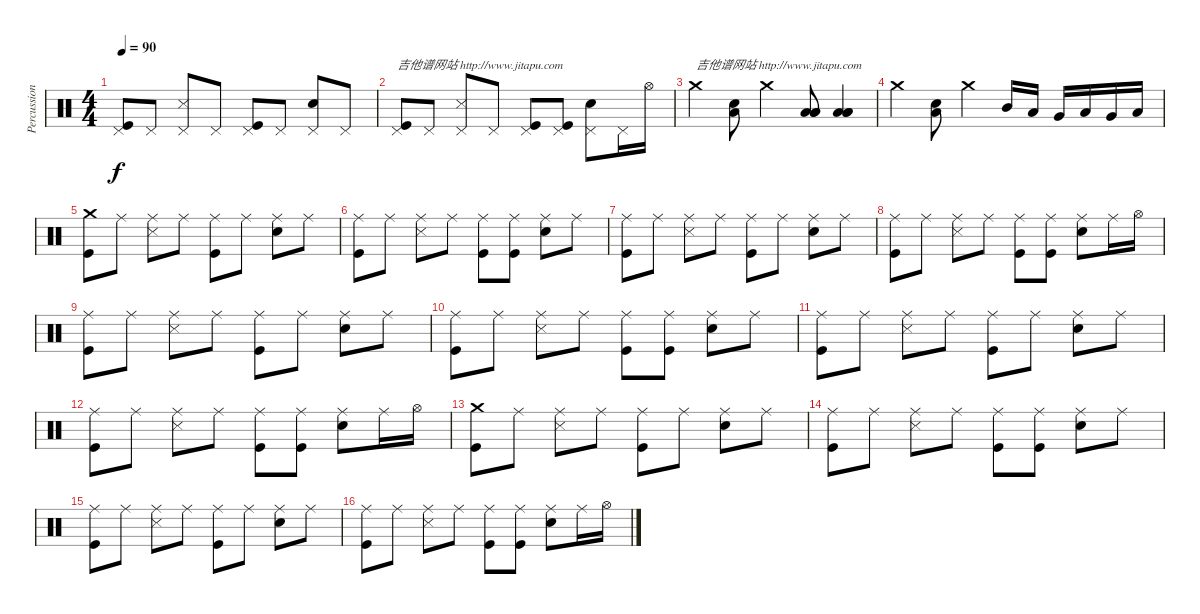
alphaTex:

\track ("Percussion" "Percussion") {instrument percussion}
\staff {score}
\articulation defaults
\ts (4 4)
\tempo 90
\clef neutral
\ks c
("Pedal Hi-Hat (hit)" "Kick (hit)").8{dy f} "Pedal Hi-Hat (hit)".8 ("Pedal Hi-Hat (hit)" "Snare (side stick) 3").8 "Pedal Hi-Hat (hit)".8 ("Pedal Hi-Hat (hit)" "Kick (hit)").8 "Pedal Hi-Hat (hit)".8 ("Pedal Hi-Hat (hit)" "Electric Snare (hit)").8 "Pedal Hi-Hat (hit)".8 |
("Pedal Hi-Hat (hit)" "Kick (hit)").8{txt "吉他谱网站 http://www.jitapu.com"} "Pedal Hi-Hat (hit)".8 ("Pedal Hi-Hat (hit)" "Snare (side stick) 3").8 "Pedal Hi-Hat (hit)".8 ("Pedal Hi-Hat (hit)" "Kick (hit)").8 ("Pedal Hi-Hat (hit)" "Kick (hit)").8 ("Pedal Hi-Hat (hit)" "Electric Snare (hit)").8 "Pedal Hi-Hat (hit)".16 "Hi-Hat (open)".16 |
"Crash medium (hit)".4{txt "吉他谱网站 http://www.jitapu.com"} ("Low Tom (hit)" "Electric Snare (hit)").8 "Crash medium (hit)".4 ("Low Tom (hit)" "Low Tom (hit)" "Low Tom (hit)").8 ("Low Tom (hit)" "Low Tom (hit)" "Low Tom (hit)").4 |
"Crash medium (hit)".4 ("Low Tom (hit)" "Electric Snare (hit)").8 "Crash medium (hit)".4 "Mid Tom (hit)".16 "Low Tom (hit)".16 "Very Low Tom (hit)".16 "Low Floor Tom (hit)".16 "Very Low Tom (hit)".16 "Low Floor Tom (hit)".16 |
("Kick (hit)" "Crash medium (hit)").8 "Ride (middle)".8 ("Ride (middle)" "Snare (side stick) 3").8 "Ride (middle)".8 ("Ride (middle)" "Kick (hit)").8 "Ride (middle)".8 ("Ride (middle)" "Electric Snare (hit)").8 "Ride (middle)".8 |
("Ride (middle)" "Kick (hit)").8 "Ride (middle)".8 ("Ride (middle)" "Snare (side stick) 3").8 "Ride (middle)".8 ("Ride (middle)" "Kick (hit)").8 ("Ride (middle)" "Kick (hit)").8 ("Ride (middle)" "Electric Snare (hit)").8 "Ride (middle)".8 |
("Ride (middle)" "Kick (hit)").8 "Ride (middle)".8 ("Ride (middle)" "Snare (side stick) 3").8 "Ride (middle)".8 ("Ride (middle)" "Kick (hit)").8 "Ride (middle)".8 ("Ride (middle)" "Electric Snare (hit)").8 "Ride (middle)".8 |
("Ride (middle)" "Kick (hit)").8 "Ride (middle)".8 ("Ride (middle)" "Snare (side stick) 3").8 "Ride (middle)".8 ("Ride (middle)" "Kick (hit)").8 ("Ride (middle)" "Kick (hit)").8 ("Ride (middle)" "Electric Snare (hit)").8 "Ride (middle)".16 "Hi-Hat (open)".16 |
("Ride (middle)" "Kick (hit)").8 "Ride (middle)".8 ("Ride (middle)" "Snare (side stick) 3").8 "Ride (middle)".8 ("Ride (middle)" "Kick (hit)").8 "Ride (middle)".8 ("Ride (middle)" "Electric Snare (hit)").8 "Ride (middle)".8 |
("Ride (middle)" "Kick (hit)").8 "Ride (middle)".8 ("Ride (middle)" "Snare (side stick) 3").8 "Ride (middle)".8 ("Ride (middle)" "Kick (hit)").8 ("Ride (middle)" "Kick (hit)").8 ("Ride (middle)" "Electric Snare (hit)").8 "Ride (middle)".8 |
("Ride (middle)" "Kick (hit)").8 "Ride (middle)".8 ("Ride (middle)" "Snare (side stick) 3").8 "Ride (middle)".8 ("Ride (middle)" "Kick (hit)").8 "Ride (middle)".8 ("Ride (middle)" "Electric Snare (hit)").8 "Ride (middle)".8 |
("Ride (middle)" "Kick (hit)").8 "Ride (middle)".8 ("Ride (middle)" "Snare (side stick) 3").8 "Ride (middle)".8 ("Ride (middle)" "Kick (hit)").8 ("Ride (middle)" "Kick (hit)").8 ("Ride (middle)" "Electric Snare (hit)").8 "Ride (middle)".16 "Hi-Hat (open)".16 |
("Kick (hit)" "Crash medium (hit)").8 "Ride (middle)".8 ("Ride (middle)" "Snare (side stick) 3").8 "Ride (middle)".8 ("Ride (middle)" "Kick (hit)").8 "Ride (middle)".8 ("Ride (middle)" "Electric Snare (hit)").8 "Ride (middle)".8 |
("Ride (middle)" "Kick (hit)").8 "Ride (middle)".8 ("Ride (middle)" "Snare (side stick) 3").8 "Ride (middle)".8 ("Ride (middle)" "Kick (hit)").8 ("Ride (middle)" "Kick (hit)").8 ("Ride (middle)" "Electric Snare (hit)").8 "Ride (middle)".8 |
("Ride (middle)" "Kick (hit)").8 "Ride (middle)".8 ("Ride (middle)" "Snare (side stick) 3").8 "Ride (middle)".8 ("Ride (middle)" "Kick (hit)").8 "Ride (middle)".8 ("Ride (middle)" "Electric Snare (hit)").8 "Ride (middle)".8 |
("Ride (middle)" "Kick (hit)").8 "Ride (middle)".8 ("Ride (middle)" "Snare (side stick) 3").8 "Ride (middle)".8 ("Ride (middle)" "Kick (hit)").8 ("Ride (middle)" "Kick (hit)").8 ("Ride (middle)" "Electric Snare (hit)").8 "Ride (middle)".16 "Hi-Hat (open)".16
